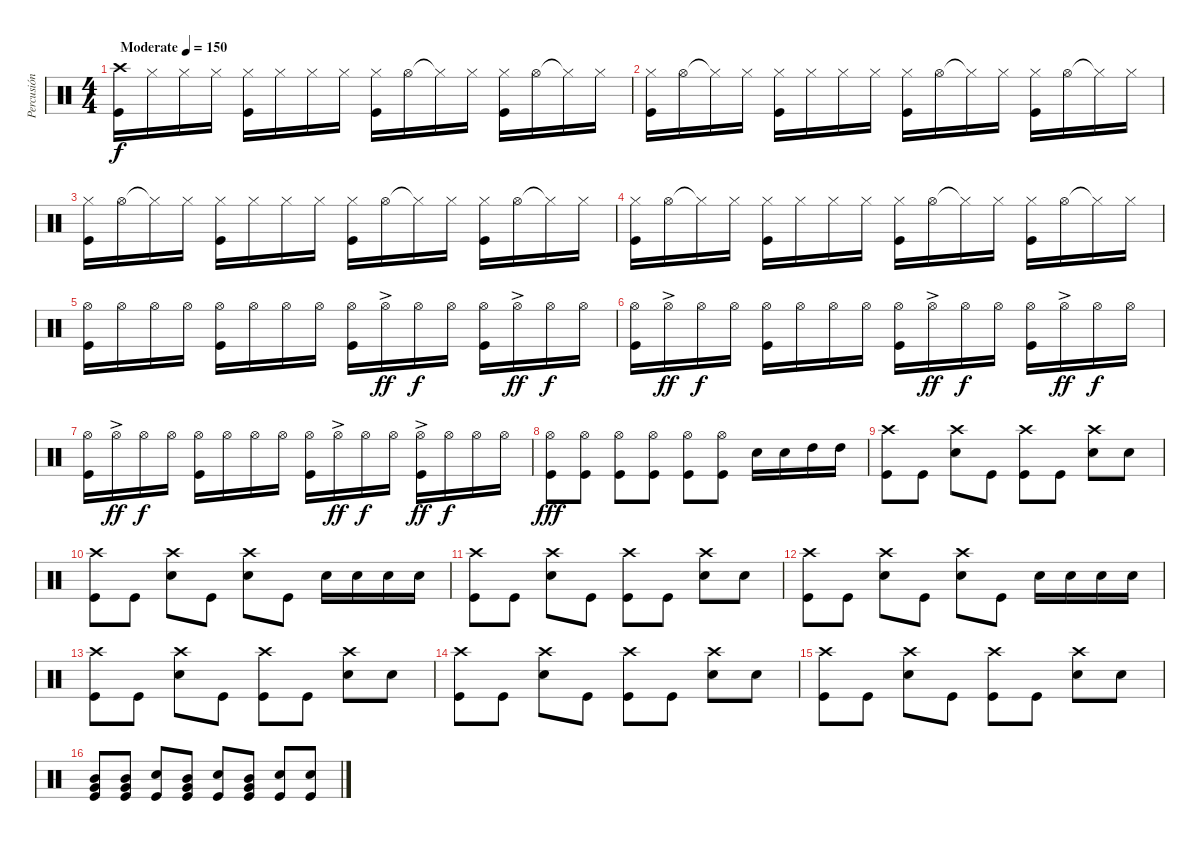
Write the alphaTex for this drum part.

\track ("Percusión" "Percusión") {instrument percussion}
\staff {score}
\articulation defaults
\ts (4 4)
\tempo (150 "Moderate")
\clef neutral
\ks c
("Kick (hit)" "Crash high (hit)").16{dy f} "Hi-Hat (closed)".16 "Hi-Hat (closed)".16 "Hi-Hat (closed)".16 ("Hi-Hat (closed)" "Kick (hit)").16 "Hi-Hat (closed)".16 "Hi-Hat (closed)".16 "Hi-Hat (closed)".16 ("Hi-Hat (closed)" "Kick (hit)").16 "Hi-Hat (open)".16 "Hi-Hat (closed)"{t}.16 "Hi-Hat (closed)".16 ("Kick (hit)" "Hi-Hat (closed)").16 "Hi-Hat (open)".16 "Hi-Hat (closed)"{t}.16 "Hi-Hat (closed)".16 |
("Kick (hit)" "Hi-Hat (closed)").16 "Hi-Hat (open)".16 "Hi-Hat (closed)"{t}.16 "Hi-Hat (closed)".16 ("Hi-Hat (closed)" "Kick (hit)").16 "Hi-Hat (closed)".16 "Hi-Hat (closed)".16 "Hi-Hat (closed)".16 ("Hi-Hat (closed)" "Kick (hit)").16 "Hi-Hat (open)".16 "Hi-Hat (closed)"{t}.16 "Hi-Hat (closed)".16 ("Kick (hit)" "Hi-Hat (closed)").16 "Hi-Hat (open)".16 "Hi-Hat (closed)"{t}.16 "Hi-Hat (closed)".16 |
("Kick (hit)" "Hi-Hat (closed)").16 "Hi-Hat (open)".16 "Hi-Hat (closed)"{t}.16 "Hi-Hat (closed)".16 ("Hi-Hat (closed)" "Kick (hit)").16 "Hi-Hat (closed)".16 "Hi-Hat (closed)".16 "Hi-Hat (closed)".16 ("Hi-Hat (closed)" "Kick (hit)").16 "Hi-Hat (open)".16 "Hi-Hat (closed)"{t}.16 "Hi-Hat (closed)".16 ("Kick (hit)" "Hi-Hat (closed)").16 "Hi-Hat (open)".16 "Hi-Hat (closed)"{t}.16 "Hi-Hat (closed)".16 |
("Kick (hit)" "Hi-Hat (closed)").16 "Hi-Hat (open)".16 "Hi-Hat (closed)"{t}.16 "Hi-Hat (closed)".16 ("Hi-Hat (closed)" "Kick (hit)").16 "Hi-Hat (closed)".16 "Hi-Hat (closed)".16 "Hi-Hat (closed)".16 ("Hi-Hat (closed)" "Kick (hit)").16 "Hi-Hat (open)".16 "Hi-Hat (closed)"{t}.16 "Hi-Hat (closed)".16 ("Kick (hit)" "Hi-Hat (closed)").16 "Hi-Hat (open)".16 "Hi-Hat (closed)"{t}.16 "Hi-Hat (closed)".16 |
("Kick (hit)" "Hi-Hat (open)").16 "Hi-Hat (open)".16 "Hi-Hat (open)".16 "Hi-Hat (open)".16 ("Hi-Hat (open)" "Kick (hit)").16 "Hi-Hat (open)".16 "Hi-Hat (open)".16 "Hi-Hat (open)".16 ("Hi-Hat (open)" "Kick (hit)").16 "Hi-Hat (open)"{ac}.16{dy ff} "Hi-Hat (open)".16{dy f} "Hi-Hat (open)".16 ("Hi-Hat (open)" "Kick (hit)").16 "Hi-Hat (open)"{ac}.16{dy ff} "Hi-Hat (open)".16{dy f} "Hi-Hat (open)".16 |
("Kick (hit)" "Hi-Hat (open)").16 "Hi-Hat (open)"{ac}.16{dy ff} "Hi-Hat (open)".16{dy f} "Hi-Hat (open)".16 ("Hi-Hat (open)" "Kick (hit)").16 "Hi-Hat (open)".16 "Hi-Hat (open)".16 "Hi-Hat (open)".16 ("Hi-Hat (open)" "Kick (hit)").16 "Hi-Hat (open)"{ac}.16{dy ff} "Hi-Hat (open)".16{dy f} "Hi-Hat (open)".16 ("Hi-Hat (open)" "Kick (hit)").16 "Hi-Hat (open)"{ac}.16{dy ff} "Hi-Hat (open)".16{dy f} "Hi-Hat (open)".16 |
("Kick (hit)" "Hi-Hat (open)").16 "Hi-Hat (open)"{ac}.16{dy ff} "Hi-Hat (open)".16{dy f} "Hi-Hat (open)".16 ("Hi-Hat (open)" "Kick (hit)").16 "Hi-Hat (open)".16 "Hi-Hat (open)".16 "Hi-Hat (open)".16 ("Hi-Hat (open)" "Kick (hit)").16 "Hi-Hat (open)"{ac}.16{dy ff} "Hi-Hat (open)".16{dy f} "Hi-Hat (open)".16 ("Hi-Hat (open)"{ac} "Kick (hit)").16{dy ff} "Hi-Hat (open)".16{dy f} "Hi-Hat (open)".16 "Hi-Hat (open)".16 |
("Hi-Hat (open)" "Kick (hit)").8{dy fff} ("Hi-Hat (open)" "Kick (hit)").8 ("Hi-Hat (open)" "Kick (hit)").8 ("Hi-Hat (open)" "Kick (hit)").8 ("Hi-Hat (open)" "Kick (hit)").8 ("Hi-Hat (open)" "Kick (hit)").8 "Snare (hit) 2".16 "Snare (hit) 2".16 "High Tom (hit)".16 "High Tom (hit)".16 |
("Crash high (hit)" "Kick (hit)").8 "Kick (hit)".8 ("Crash high (hit)" "Snare (hit) 2").8 "Kick (hit)".8 ("Kick (hit)" "Crash high (hit)").8 "Kick (hit)".8 ("Snare (hit) 2" "Crash high (hit)").8 "Snare (hit) 2".8 |
("Crash high (hit)" "Kick (hit)").8 "Kick (hit)".8 ("Crash high (hit)" "Snare (hit) 2").8 "Kick (hit)".8 ("Crash high (hit)" "Snare (hit) 2").8 "Kick (hit)".8 "Snare (hit) 2".16 "Snare (hit) 2".16 "Snare (hit) 2".16 "Snare (hit) 2".16 |
("Crash high (hit)" "Kick (hit)").8 "Kick (hit)".8 ("Crash high (hit)" "Snare (hit) 2").8 "Kick (hit)".8 ("Kick (hit)" "Crash high (hit)").8 "Kick (hit)".8 ("Snare (hit) 2" "Crash high (hit)").8 "Snare (hit) 2".8 |
("Crash high (hit)" "Kick (hit)").8 "Kick (hit)".8 ("Crash high (hit)" "Snare (hit) 2").8 "Kick (hit)".8 ("Crash high (hit)" "Snare (hit) 2").8 "Kick (hit)".8 "Snare (hit) 2".16 "Snare (hit) 2".16 "Snare (hit) 2".16 "Snare (hit) 2".16 |
("Crash high (hit)" "Kick (hit)").8 "Kick (hit)".8 ("Crash high (hit)" "Snare (hit) 2").8 "Kick (hit)".8 ("Kick (hit)" "Crash high (hit)").8 "Kick (hit)".8 ("Snare (hit) 2" "Crash high (hit)").8 "Snare (hit) 2".8 |
("Crash high (hit)" "Kick (hit)").8 "Kick (hit)".8 ("Crash high (hit)" "Snare (hit) 2").8 "Kick (hit)".8 ("Crash high (hit)" "Kick (hit)").8 "Kick (hit)".8 ("Snare (hit) 2" "Crash high (hit)").8 "Snare (hit) 2".8 |
("Crash high (hit)" "Kick (hit)").8 "Kick (hit)".8 ("Crash high (hit)" "Snare (hit) 2").8 "Kick (hit)".8 ("Crash high (hit)" "Kick (hit)").8 "Kick (hit)".8 ("Snare (hit) 2" "Crash high (hit)").8 "Snare (hit) 2".8 |
("Kick (hit)" "Very Low Tom (hit)" "Mid Tom (hit)").8 ("Kick (hit)" "Mid Tom (hit)" "Very Low Tom (hit)").8 ("Kick (hit)" "Snare (hit) 2").8 ("Kick (hit)" "Very Low Tom (hit)" "Mid Tom (hit)").8 ("Kick (hit)" "Snare (hit) 2").8 ("Kick (hit)" "Very Low Tom (hit)" "Mid Tom (hit)").8 ("Kick (hit)" "Snare (hit) 2").8 ("Kick (hit)" "Snare (hit) 2").8
